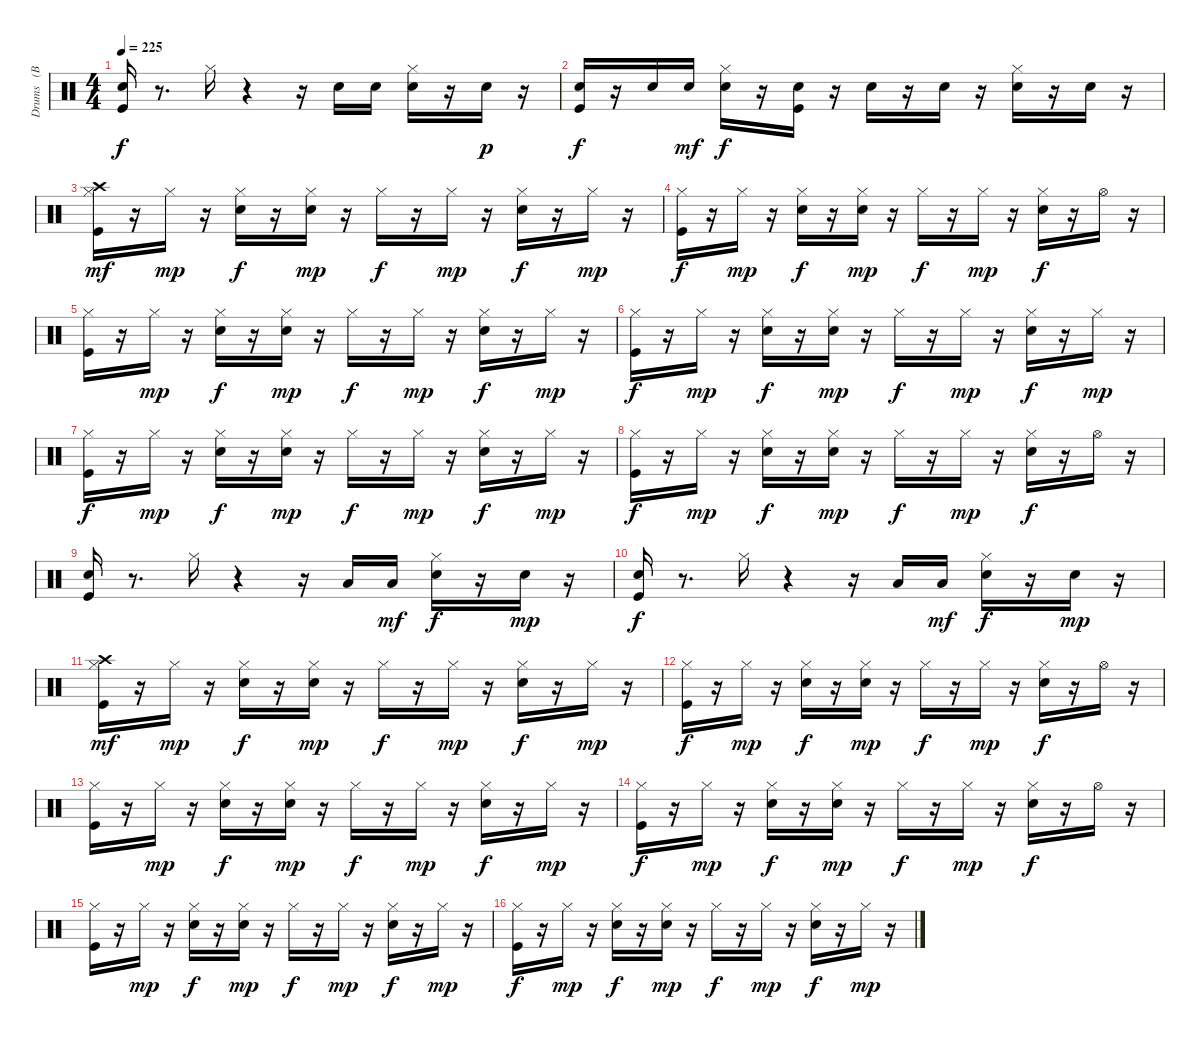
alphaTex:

\track ("Drums   (BB)" "Drums   (B") {instrument percussion}
\staff {score}
\articulation defaults
\ts (4 4)
\tempo 225
\clef neutral
\ks c
("Kick (hit)" "Snare (hit) 2").16{dy f} r.8{d} "Hi-Hat (closed)".16 r.4 r.16 "Snare (hit) 2".16 "Snare (hit) 2".16 ("Snare (hit) 2" "Hi-Hat (closed)").16 r.16 "Snare (hit) 2".16{dy p} r.16 |
("Kick (hit)" "Snare (hit) 2").16{dy f} r.16 "Snare (hit) 2".16 "Snare (hit) 2".16{dy mf} ("Snare (hit) 2" "Hi-Hat (closed)").16{dy f} r.16 ("Kick (hit)" "Snare (hit) 2").16 r.16 "Snare (hit) 2".16 r.16 "Snare (hit) 2".16 r.16 ("Snare (hit) 2" "Hi-Hat (closed)").16 r.16 "Snare (hit) 2".16 r.16 |
("Kick (hit)" "Hi-Hat (closed)" "Crash high (hit)").16{dy mf} r.16 "Hi-Hat (closed)".16{dy mp} r.16 ("Snare (hit) 2" "Hi-Hat (closed)").16{dy f} r.16 ("Snare (hit) 2" "Hi-Hat (closed)").16{dy mp} r.16 "Hi-Hat (closed)".16{dy f} r.16 "Hi-Hat (closed)".16{dy mp} r.16 ("Snare (hit) 2" "Hi-Hat (closed)").16{dy f} r.16 "Hi-Hat (closed)".16{dy mp} r.16 |
("Kick (hit)" "Hi-Hat (closed)").16{dy f} r.16 "Hi-Hat (closed)".16{dy mp} r.16 ("Snare (hit) 2" "Hi-Hat (closed)").16{dy f} r.16 ("Snare (hit) 2" "Hi-Hat (closed)").16{dy mp} r.16 "Hi-Hat (closed)".16{dy f} r.16 "Hi-Hat (closed)".16{dy mp} r.16 ("Snare (hit) 2" "Hi-Hat (closed)").16{dy f} r.16 "Hi-Hat (open)".16 r.16 |
("Kick (hit)" "Hi-Hat (closed)").16 r.16 "Hi-Hat (closed)".16{dy mp} r.16 ("Snare (hit) 2" "Hi-Hat (closed)").16{dy f} r.16 ("Snare (hit) 2" "Hi-Hat (closed)").16{dy mp} r.16 "Hi-Hat (closed)".16{dy f} r.16 "Hi-Hat (closed)".16{dy mp} r.16 ("Snare (hit) 2" "Hi-Hat (closed)").16{dy f} r.16 "Hi-Hat (closed)".16{dy mp} r.16 |
("Kick (hit)" "Hi-Hat (closed)").16{dy f} r.16 "Hi-Hat (closed)".16{dy mp} r.16 ("Snare (hit) 2" "Hi-Hat (closed)").16{dy f} r.16 ("Snare (hit) 2" "Hi-Hat (closed)").16{dy mp} r.16 "Hi-Hat (closed)".16{dy f} r.16 "Hi-Hat (closed)".16{dy mp} r.16 ("Snare (hit) 2" "Hi-Hat (closed)").16{dy f} r.16 "Hi-Hat (closed)".16{dy mp} r.16 |
("Kick (hit)" "Hi-Hat (closed)").16{dy f} r.16 "Hi-Hat (closed)".16{dy mp} r.16 ("Snare (hit) 2" "Hi-Hat (closed)").16{dy f} r.16 ("Snare (hit) 2" "Hi-Hat (closed)").16{dy mp} r.16 "Hi-Hat (closed)".16{dy f} r.16 "Hi-Hat (closed)".16{dy mp} r.16 ("Snare (hit) 2" "Hi-Hat (closed)").16{dy f} r.16 "Hi-Hat (closed)".16{dy mp} r.16 |
("Kick (hit)" "Hi-Hat (closed)").16{dy f} r.16 "Hi-Hat (closed)".16{dy mp} r.16 ("Snare (hit) 2" "Hi-Hat (closed)").16{dy f} r.16 ("Snare (hit) 2" "Hi-Hat (closed)").16{dy mp} r.16 "Hi-Hat (closed)".16{dy f} r.16 "Hi-Hat (closed)".16{dy mp} r.16 ("Snare (hit) 2" "Hi-Hat (closed)").16{dy f} r.16 "Hi-Hat (open)".16 r.16 |
("Kick (hit)" "Snare (hit) 2").16 r.8{d} "Hi-Hat (closed)".16 r.4 r.16 "Low Tom (hit)".16 "Low Tom (hit)".16{dy mf} ("Snare (hit) 2" "Hi-Hat (closed)").16{dy f} r.16 "Snare (hit) 2".16{dy mp} r.16 |
("Kick (hit)" "Snare (hit) 2").16{dy f} r.8{d} "Hi-Hat (closed)".16 r.4 r.16 "Low Tom (hit)".16 "Low Tom (hit)".16{dy mf} ("Snare (hit) 2" "Hi-Hat (closed)").16{dy f} r.16 "Snare (hit) 2".16{dy mp} r.16 |
("Kick (hit)" "Hi-Hat (closed)" "Crash high (hit)").16{dy mf} r.16 "Hi-Hat (closed)".16{dy mp} r.16 ("Snare (hit) 2" "Hi-Hat (closed)").16{dy f} r.16 ("Snare (hit) 2" "Hi-Hat (closed)").16{dy mp} r.16 "Hi-Hat (closed)".16{dy f} r.16 "Hi-Hat (closed)".16{dy mp} r.16 ("Snare (hit) 2" "Hi-Hat (closed)").16{dy f} r.16 "Hi-Hat (closed)".16{dy mp} r.16 |
("Kick (hit)" "Hi-Hat (closed)").16{dy f} r.16 "Hi-Hat (closed)".16{dy mp} r.16 ("Snare (hit) 2" "Hi-Hat (closed)").16{dy f} r.16 ("Snare (hit) 2" "Hi-Hat (closed)").16{dy mp} r.16 "Hi-Hat (closed)".16{dy f} r.16 "Hi-Hat (closed)".16{dy mp} r.16 ("Snare (hit) 2" "Hi-Hat (closed)").16{dy f} r.16 "Hi-Hat (open)".16 r.16 |
("Kick (hit)" "Hi-Hat (closed)").16 r.16 "Hi-Hat (closed)".16{dy mp} r.16 ("Snare (hit) 2" "Hi-Hat (closed)").16{dy f} r.16 ("Snare (hit) 2" "Hi-Hat (closed)").16{dy mp} r.16 "Hi-Hat (closed)".16{dy f} r.16 "Hi-Hat (closed)".16{dy mp} r.16 ("Snare (hit) 2" "Hi-Hat (closed)").16{dy f} r.16 "Hi-Hat (closed)".16{dy mp} r.16 |
("Kick (hit)" "Hi-Hat (closed)").16{dy f} r.16 "Hi-Hat (closed)".16{dy mp} r.16 ("Snare (hit) 2" "Hi-Hat (closed)").16{dy f} r.16 ("Snare (hit) 2" "Hi-Hat (closed)").16{dy mp} r.16 "Hi-Hat (closed)".16{dy f} r.16 "Hi-Hat (closed)".16{dy mp} r.16 ("Snare (hit) 2" "Hi-Hat (closed)").16{dy f} r.16 "Hi-Hat (open)".16 r.16 |
("Kick (hit)" "Hi-Hat (closed)").16 r.16 "Hi-Hat (closed)".16{dy mp} r.16 ("Snare (hit) 2" "Hi-Hat (closed)").16{dy f} r.16 ("Snare (hit) 2" "Hi-Hat (closed)").16{dy mp} r.16 "Hi-Hat (closed)".16{dy f} r.16 "Hi-Hat (closed)".16{dy mp} r.16 ("Snare (hit) 2" "Hi-Hat (closed)").16{dy f} r.16 "Hi-Hat (closed)".16{dy mp} r.16 |
("Kick (hit)" "Hi-Hat (closed)").16{dy f} r.16 "Hi-Hat (closed)".16{dy mp} r.16 ("Snare (hit) 2" "Hi-Hat (closed)").16{dy f} r.16 ("Snare (hit) 2" "Hi-Hat (closed)").16{dy mp} r.16 "Hi-Hat (closed)".16{dy f} r.16 "Hi-Hat (closed)".16{dy mp} r.16 ("Snare (hit) 2" "Hi-Hat (closed)").16{dy f} r.16 "Hi-Hat (closed)".16{dy mp} r.16
